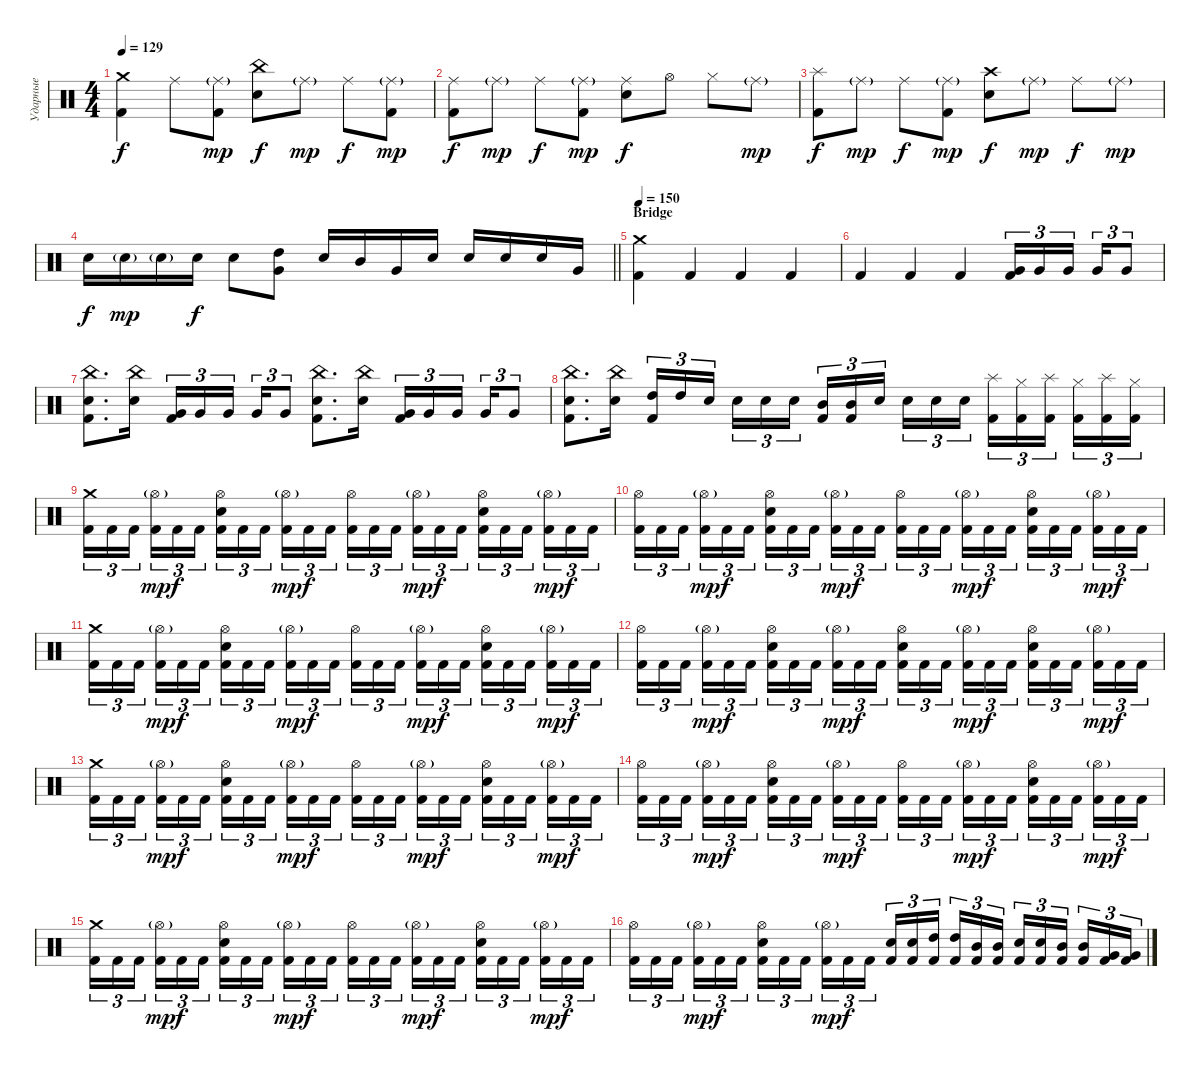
\track ("Ударные" "Ударные") {instrument percussion}
\staff
\articulation defaults
\ts (4 4)
\tempo 129
\clef neutral
\ks c
("Crash medium (hit)" "Kick (hit) 2").4{dy f} "Ride (middle)".8 ("Ride (middle)"{g} "Kick (hit) 2").8{dy mp} ("China (hit)" "Snare (hit) 2").8{dy f} "Ride (middle)"{g}.8{dy mp} "Ride (middle)".8{dy f} ("Ride (middle)"{g} "Kick (hit) 2").8{dy mp} |
("Ride (middle)" "Kick (hit) 2").8{dy f} "Ride (middle)"{g}.8{dy mp} "Ride (middle)".8{dy f} ("Ride (middle)"{g} "Kick (hit) 2").8{dy mp} ("Ride (middle)" "Snare (hit) 2").8{dy f} "Hi-Hat (open)".8 "Hi-Hat (closed)".8 "Ride (middle)"{g}.8{dy mp} |
("Splash (hit)" "Kick (hit) 2").8{dy f} "Ride (middle)"{g}.8{dy mp} "Ride (middle)".8{dy f} ("Ride (middle)"{g} "Kick (hit) 2").8{dy mp} ("Crash high (hit)" "Snare (hit) 2").8{dy f} "Ride (middle)"{g}.8{dy mp} "Ride (middle)".8{dy f} "Ride (middle)"{g}.8{dy mp} |
\barLineRight lightlight "Snare (hit) 2".16{dy f} "Snare (hit) 2"{g}.16{dy mp} "Snare (hit) 2"{g}.16 "Snare (hit) 2".16{dy f} "Snare (hit) 2".8
("High Tom (hit)" "Very Low Tom (hit)").8 "Snare (hit) 2".16 "Mid Tom (hit)".16 "Very Low Tom (hit)".16 "Snare (hit) 2".16 "Snare (hit) 2".16 "Snare (hit) 2".16 "Snare (hit) 2".16 "Very Low Tom (hit)".16 |
\section ("" "Bridge")
\tempo 140
\tempo 150
("Crash medium (hit)" "Kick (hit) 2").4 "Kick (hit) 2".4 "Kick (hit) 2".4 "Kick (hit) 2".4 |
"Kick (hit) 2".4 "Kick (hit) 2".4 "Kick (hit) 2".4 ("Very Low Tom (hit)" "Kick (hit) 2").16{tu (3 2)} "Very Low Tom (hit)".16{tu (3 2)} "Very Low Tom (hit)".16{tu (3 2) beam splitsecondary} "Very Low Tom (hit)".16{tu (3 2)} "Very Low Tom (hit)".8{tu (3 2)} |
("China (hit)" "Snare (hit) 2" "Kick (hit) 2").8{d} ("China (hit)" "Snare (hit) 2").16 ("Very Low Tom (hit)" "Kick (hit) 2").16{tu (3 2)} "Very Low Tom (hit)".16{tu (3 2)} "Very Low Tom (hit)".16{tu (3 2) beam splitsecondary} "Very Low Tom (hit)".16{tu (3 2)} "Very Low Tom (hit)".8{tu (3 2)} ("China (hit)" "Snare (hit) 2" "Kick (hit) 2").8{d} ("China (hit)" "Snare (hit) 2").16 ("Very Low Tom (hit)" "Kick (hit) 2").16{tu (3 2)} "Very Low Tom (hit)".16{tu (3 2)} "Very Low Tom (hit)".16{tu (3 2) beam splitsecondary} "Very Low Tom (hit)".16{tu (3 2)} "Very Low Tom (hit)".8{tu (3 2)} |
("China (hit)" "Snare (hit) 2" "Kick (hit) 2").8{d} ("China (hit)" "Snare (hit) 2").16 ("High Tom (hit)" "Kick (hit) 2").16{tu (3 2)} "High Tom (hit)".16{tu (3 2)} "Snare (hit) 2".16{tu (3 2) beam splitsecondary} "Snare (hit) 2".16{tu (3 2)} "Snare (hit) 2".16{tu (3 2)} "Snare (hit) 2".16{tu (3 2)} ("Mid Tom (hit)" "Kick (hit) 2").16{tu (3 2)} ("Mid Tom (hit)" "Kick (hit) 2").16{tu (3 2)} "Snare (hit) 2".16{tu (3 2) beam splitsecondary} "Snare (hit) 2".16{tu (3 2)} "Snare (hit) 2".16{tu (3 2)} "Snare (hit) 2".16{tu (3 2)} ("Splash (hit)" "Kick (hit) 2").16{tu (3 2)} ("Hi-Hat (closed)" "Kick (hit) 2").16{tu (3 2)} ("Splash (hit)" "Kick (hit) 2").16{tu (3 2) beam splitsecondary} ("Hi-Hat (closed)" "Kick (hit) 2").16{tu (3 2)} ("Splash (hit)" "Kick (hit) 2").16{tu (3 2)} ("Hi-Hat (closed)" "Kick (hit) 2").16{tu (3 2)} |
("Crash medium (hit)" "Kick (hit) 2").16{tu (3 2)} "Kick (hit) 2".16{tu (3 2)} "Kick (hit) 2".16{tu (3 2) beam splitsecondary} ("Hi-Hat (open)"{g} "Kick (hit) 2").16{tu (3 2) dy mp} "Kick (hit) 2".16{tu (3 2) dy f} "Kick (hit) 2".16{tu (3 2)} ("Hi-Hat (open)" "Snare (hit) 2" "Kick (hit) 2").16{tu (3 2)} "Kick (hit) 2".16{tu (3 2)} "Kick (hit) 2".16{tu (3 2) beam splitsecondary} ("Hi-Hat (open)"{g} "Kick (hit) 2").16{tu (3 2) dy mp} "Kick (hit) 2".16{tu (3 2) dy f} "Kick (hit) 2".16{tu (3 2)} ("Hi-Hat (open)" "Kick (hit) 2").16{tu (3 2)} "Kick (hit) 2".16{tu (3 2)} "Kick (hit) 2".16{tu (3 2) beam splitsecondary} ("Hi-Hat (open)"{g} "Kick (hit) 2").16{tu (3 2) dy mp} "Kick (hit) 2".16{tu (3 2) dy f} "Kick (hit) 2".16{tu (3 2)} ("Hi-Hat (open)" "Snare (hit) 2" "Kick (hit) 2").16{tu (3 2)} "Kick (hit) 2".16{tu (3 2)} "Kick (hit) 2".16{tu (3 2) beam splitsecondary} ("Hi-Hat (open)"{g} "Kick (hit) 2").16{tu (3 2) dy mp} "Kick (hit) 2".16{tu (3 2) dy f} "Kick (hit) 2".16{tu (3 2)} |
("Hi-Hat (open)" "Kick (hit) 2").16{tu (3 2)} "Kick (hit) 2".16{tu (3 2)} "Kick (hit) 2".16{tu (3 2) beam splitsecondary} ("Hi-Hat (open)"{g} "Kick (hit) 2").16{tu (3 2) dy mp} "Kick (hit) 2".16{tu (3 2) dy f} "Kick (hit) 2".16{tu (3 2)} ("Hi-Hat (open)" "Snare (hit) 2" "Kick (hit) 2").16{tu (3 2)} "Kick (hit) 2".16{tu (3 2)} "Kick (hit) 2".16{tu (3 2) beam splitsecondary} ("Hi-Hat (open)"{g} "Kick (hit) 2").16{tu (3 2) dy mp} "Kick (hit) 2".16{tu (3 2) dy f} "Kick (hit) 2".16{tu (3 2)} ("Hi-Hat (open)" "Kick (hit) 2").16{tu (3 2)} "Kick (hit) 2".16{tu (3 2)} "Kick (hit) 2".16{tu (3 2) beam splitsecondary} ("Hi-Hat (open)"{g} "Kick (hit) 2").16{tu (3 2) dy mp} "Kick (hit) 2".16{tu (3 2) dy f} "Kick (hit) 2".16{tu (3 2)} ("Hi-Hat (open)" "Snare (hit) 2" "Kick (hit) 2").16{tu (3 2)} "Kick (hit) 2".16{tu (3 2)} "Kick (hit) 2".16{tu (3 2) beam splitsecondary} ("Hi-Hat (open)"{g} "Kick (hit) 2").16{tu (3 2) dy mp} "Kick (hit) 2".16{tu (3 2) dy f} "Kick (hit) 2".16{tu (3 2)} |
("Crash medium (hit)" "Kick (hit) 2").16{tu (3 2)} "Kick (hit) 2".16{tu (3 2)} "Kick (hit) 2".16{tu (3 2) beam splitsecondary} ("Hi-Hat (open)"{g} "Kick (hit) 2").16{tu (3 2) dy mp} "Kick (hit) 2".16{tu (3 2) dy f} "Kick (hit) 2".16{tu (3 2)} ("Hi-Hat (open)" "Snare (hit) 2" "Kick (hit) 2").16{tu (3 2)} "Kick (hit) 2".16{tu (3 2)} "Kick (hit) 2".16{tu (3 2) beam splitsecondary} ("Hi-Hat (open)"{g} "Kick (hit) 2").16{tu (3 2) dy mp} "Kick (hit) 2".16{tu (3 2) dy f} "Kick (hit) 2".16{tu (3 2)} ("Hi-Hat (open)" "Kick (hit) 2").16{tu (3 2)} "Kick (hit) 2".16{tu (3 2)} "Kick (hit) 2".16{tu (3 2) beam splitsecondary} ("Hi-Hat (open)"{g} "Kick (hit) 2").16{tu (3 2) dy mp} "Kick (hit) 2".16{tu (3 2) dy f} "Kick (hit) 2".16{tu (3 2)} ("Hi-Hat (open)" "Snare (hit) 2" "Kick (hit) 2").16{tu (3 2)} "Kick (hit) 2".16{tu (3 2)} "Kick (hit) 2".16{tu (3 2) beam splitsecondary} ("Hi-Hat (open)"{g} "Kick (hit) 2").16{tu (3 2) dy mp} "Kick (hit) 2".16{tu (3 2) dy f} "Kick (hit) 2".16{tu (3 2)} |
("Hi-Hat (open)" "Kick (hit) 2").16{tu (3 2)} "Kick (hit) 2".16{tu (3 2)} "Kick (hit) 2".16{tu (3 2) beam splitsecondary} ("Hi-Hat (open)"{g} "Kick (hit) 2").16{tu (3 2) dy mp} "Kick (hit) 2".16{tu (3 2) dy f} "Kick (hit) 2".16{tu (3 2)} ("Hi-Hat (open)" "Snare (hit) 2" "Kick (hit) 2").16{tu (3 2)} "Kick (hit) 2".16{tu (3 2)} "Kick (hit) 2".16{tu (3 2) beam splitsecondary} ("Hi-Hat (open)"{g} "Kick (hit) 2").16{tu (3 2) dy mp} "Kick (hit) 2".16{tu (3 2) dy f} "Kick (hit) 2".16{tu (3 2)} ("Hi-Hat (open)" "Snare (hit) 2" "Kick (hit) 2").16{tu (3 2)} "Kick (hit) 2".16{tu (3 2)} "Kick (hit) 2".16{tu (3 2) beam splitsecondary} ("Hi-Hat (open)"{g} "Kick (hit) 2").16{tu (3 2) dy mp} "Kick (hit) 2".16{tu (3 2) dy f} "Kick (hit) 2".16{tu (3 2)} ("Hi-Hat (open)" "Snare (hit) 2" "Kick (hit) 2").16{tu (3 2)} "Kick (hit) 2".16{tu (3 2)} "Kick (hit) 2".16{tu (3 2) beam splitsecondary} ("Hi-Hat (open)"{g} "Kick (hit) 2").16{tu (3 2) dy mp} "Kick (hit) 2".16{tu (3 2) dy f} "Kick (hit) 2".16{tu (3 2)} |
("Crash medium (hit)" "Kick (hit) 2").16{tu (3 2)} "Kick (hit) 2".16{tu (3 2)} "Kick (hit) 2".16{tu (3 2) beam splitsecondary} ("Hi-Hat (open)"{g} "Kick (hit) 2").16{tu (3 2) dy mp} "Kick (hit) 2".16{tu (3 2) dy f} "Kick (hit) 2".16{tu (3 2)} ("Hi-Hat (open)" "Snare (hit) 2" "Kick (hit) 2").16{tu (3 2)} "Kick (hit) 2".16{tu (3 2)} "Kick (hit) 2".16{tu (3 2) beam splitsecondary} ("Hi-Hat (open)"{g} "Kick (hit) 2").16{tu (3 2) dy mp} "Kick (hit) 2".16{tu (3 2) dy f} "Kick (hit) 2".16{tu (3 2)} ("Hi-Hat (open)" "Kick (hit) 2").16{tu (3 2)} "Kick (hit) 2".16{tu (3 2)} "Kick (hit) 2".16{tu (3 2) beam splitsecondary} ("Hi-Hat (open)"{g} "Kick (hit) 2").16{tu (3 2) dy mp} "Kick (hit) 2".16{tu (3 2) dy f} "Kick (hit) 2".16{tu (3 2)} ("Hi-Hat (open)" "Snare (hit) 2" "Kick (hit) 2").16{tu (3 2)} "Kick (hit) 2".16{tu (3 2)} "Kick (hit) 2".16{tu (3 2) beam splitsecondary} ("Hi-Hat (open)"{g} "Kick (hit) 2").16{tu (3 2) dy mp} "Kick (hit) 2".16{tu (3 2) dy f} "Kick (hit) 2".16{tu (3 2)} |
("Hi-Hat (open)" "Kick (hit) 2").16{tu (3 2)} "Kick (hit) 2".16{tu (3 2)} "Kick (hit) 2".16{tu (3 2) beam splitsecondary} ("Hi-Hat (open)"{g} "Kick (hit) 2").16{tu (3 2) dy mp} "Kick (hit) 2".16{tu (3 2) dy f} "Kick (hit) 2".16{tu (3 2)} ("Hi-Hat (open)" "Snare (hit) 2" "Kick (hit) 2").16{tu (3 2)} "Kick (hit) 2".16{tu (3 2)} "Kick (hit) 2".16{tu (3 2) beam splitsecondary} ("Hi-Hat (open)"{g} "Kick (hit) 2").16{tu (3 2) dy mp} "Kick (hit) 2".16{tu (3 2) dy f} "Kick (hit) 2".16{tu (3 2)} ("Hi-Hat (open)" "Kick (hit) 2").16{tu (3 2)} "Kick (hit) 2".16{tu (3 2)} "Kick (hit) 2".16{tu (3 2) beam splitsecondary} ("Hi-Hat (open)"{g} "Kick (hit) 2").16{tu (3 2) dy mp} "Kick (hit) 2".16{tu (3 2) dy f} "Kick (hit) 2".16{tu (3 2)} ("Hi-Hat (open)" "Snare (hit) 2" "Kick (hit) 2").16{tu (3 2)} "Kick (hit) 2".16{tu (3 2)} "Kick (hit) 2".16{tu (3 2) beam splitsecondary} ("Hi-Hat (open)"{g} "Kick (hit) 2").16{tu (3 2) dy mp} "Kick (hit) 2".16{tu (3 2) dy f} "Kick (hit) 2".16{tu (3 2)} |
("Crash medium (hit)" "Kick (hit) 2").16{tu (3 2)} "Kick (hit) 2".16{tu (3 2)} "Kick (hit) 2".16{tu (3 2) beam splitsecondary} ("Hi-Hat (open)"{g} "Kick (hit) 2").16{tu (3 2) dy mp} "Kick (hit) 2".16{tu (3 2) dy f} "Kick (hit) 2".16{tu (3 2)} ("Hi-Hat (open)" "Snare (hit) 2" "Kick (hit) 2").16{tu (3 2)} "Kick (hit) 2".16{tu (3 2)} "Kick (hit) 2".16{tu (3 2) beam splitsecondary} ("Hi-Hat (open)"{g} "Kick (hit) 2").16{tu (3 2) dy mp} "Kick (hit) 2".16{tu (3 2) dy f} "Kick (hit) 2".16{tu (3 2)} ("Hi-Hat (open)" "Kick (hit) 2").16{tu (3 2)} "Kick (hit) 2".16{tu (3 2)} "Kick (hit) 2".16{tu (3 2) beam splitsecondary} ("Hi-Hat (open)"{g} "Kick (hit) 2").16{tu (3 2) dy mp} "Kick (hit) 2".16{tu (3 2) dy f} "Kick (hit) 2".16{tu (3 2)} ("Hi-Hat (open)" "Snare (hit) 2" "Kick (hit) 2").16{tu (3 2)} "Kick (hit) 2".16{tu (3 2)} "Kick (hit) 2".16{tu (3 2) beam splitsecondary} ("Hi-Hat (open)"{g} "Kick (hit) 2").16{tu (3 2) dy mp} "Kick (hit) 2".16{tu (3 2) dy f} "Kick (hit) 2".16{tu (3 2)} |
("Hi-Hat (open)" "Kick (hit) 2").16{tu (3 2)} "Kick (hit) 2".16{tu (3 2)} "Kick (hit) 2".16{tu (3 2) beam splitsecondary} ("Hi-Hat (open)"{g} "Kick (hit) 2").16{tu (3 2) dy mp} "Kick (hit) 2".16{tu (3 2) dy f} "Kick (hit) 2".16{tu (3 2)} ("Hi-Hat (open)" "Snare (hit) 2" "Kick (hit) 2").16{tu (3 2)} "Kick (hit) 2".16{tu (3 2)} "Kick (hit) 2".16{tu (3 2) beam splitsecondary} ("Hi-Hat (open)"{g} "Kick (hit) 2").16{tu (3 2) dy mp} "Kick (hit) 2".16{tu (3 2) dy f} "Kick (hit) 2".16{tu (3 2)} ("Snare (hit) 2" "Kick (hit) 2").16{tu (3 2)} ("Snare (hit) 2" "Kick (hit) 2").16{tu (3 2)} ("High Tom (hit)" "Kick (hit) 2").16{tu (3 2) beam splitsecondary} ("High Tom (hit)" "Kick (hit) 2").16{tu (3 2)} ("Mid Tom (hit)" "Kick (hit) 2").16{tu (3 2)} ("Mid Tom (hit)" "Kick (hit) 2").16{tu (3 2)} ("Snare (hit) 2" "Kick (hit) 2").16{tu (3 2)} ("Snare (hit) 2" "Kick (hit) 2").16{tu (3 2)} ("Mid Tom (hit)" "Kick (hit) 2").16{tu (3 2) beam splitsecondary} ("Mid Tom (hit)" "Kick (hit) 2").16{tu (3 2)} ("Very Low Tom (hit)" "Kick (hit) 2").16{tu (3 2)} ("Very Low Tom (hit)" "Kick (hit) 2").16{tu (3 2)}
